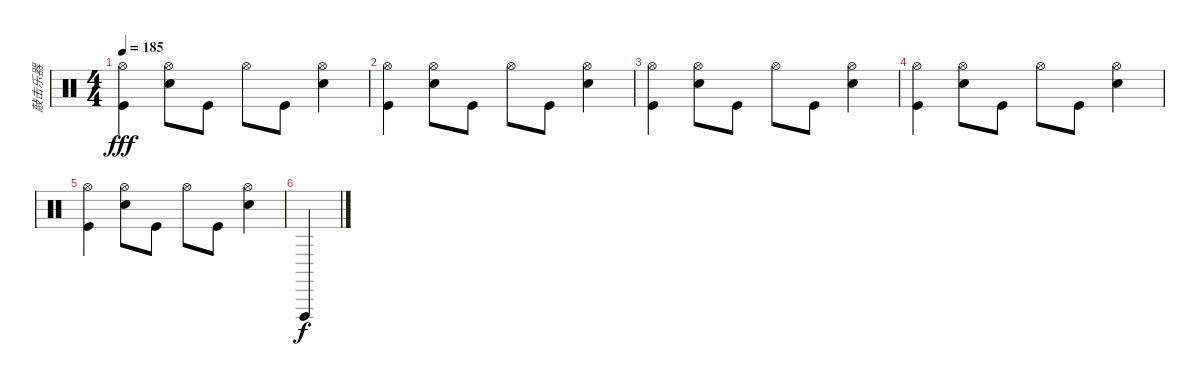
\track ("敲击乐器" "敲击乐器") {instrument percussion}
\staff {score}
\articulation defaults
\ts (4 4)
\tempo 185
\clef neutral
\ks c
("Hi-Hat (open)" "Kick (hit)").4{dy fff} ("Hi-Hat (open)" "Snare (hit) 2").8 "Kick (hit)".8 "Hi-Hat (open)".8 "Kick (hit)".8 ("Hi-Hat (open)" "Snare (hit) 2").4 |
("Hi-Hat (open)" "Kick (hit)").4 ("Hi-Hat (open)" "Snare (hit) 2").8 "Kick (hit)".8 "Hi-Hat (open)".8 "Kick (hit)".8 ("Hi-Hat (open)" "Snare (hit) 2").4 |
("Hi-Hat (open)" "Kick (hit)").4 ("Hi-Hat (open)" "Snare (hit) 2").8 "Kick (hit)".8 "Hi-Hat (open)".8 "Kick (hit)".8 ("Hi-Hat (open)" "Snare (hit) 2").4 |
("Hi-Hat (open)" "Kick (hit)").4 ("Hi-Hat (open)" "Snare (hit) 2").8 "Kick (hit)".8 "Hi-Hat (open)".8 "Kick (hit)".8 ("Hi-Hat (open)" "Snare (hit) 2").4 |
("Hi-Hat (open)" "Kick (hit)").4 ("Hi-Hat (open)" "Snare (hit) 2").8 "Kick (hit)".8 "Hi-Hat (open)".8 "Kick (hit)".8 ("Hi-Hat (open)" "Snare (hit) 2").4 |
"Vibraslap (hit)".4{dy f}
